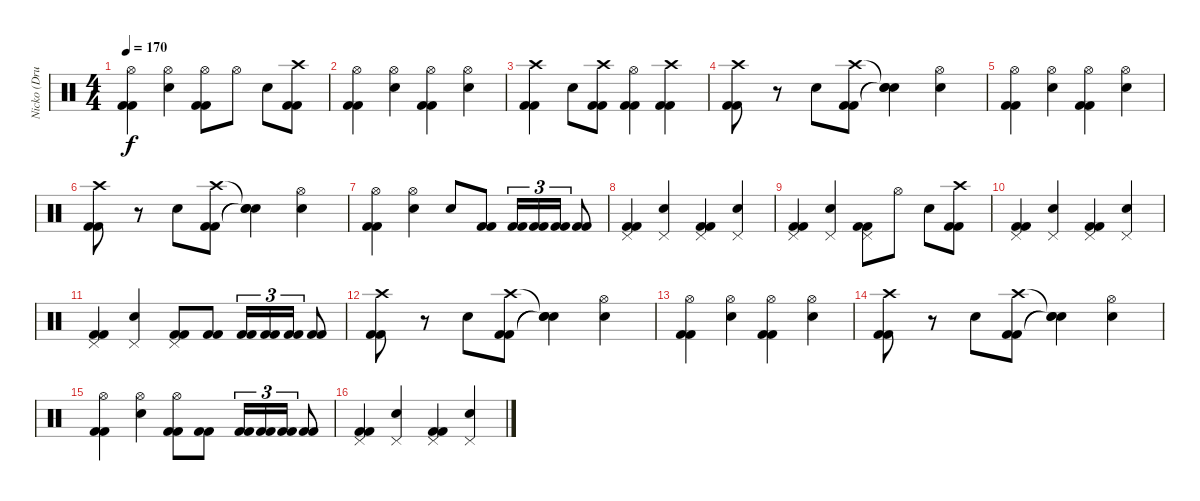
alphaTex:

\track ("Nicko (Drums)" "Nicko (Dru") {instrument percussion}
\staff {score}
\articulation defaults
\ts (4 4)
\tempo 170
\clef neutral
\ks c
("Hi-Hat (open)" "Kick (hit) 2" "Kick (hit) 2").4{dy f} ("Hi-Hat (open)" "Snare (hit) 2").4 ("Hi-Hat (open)" "Kick (hit) 2" "Kick (hit) 2").8 "Hi-Hat (open)".8 "Snare (hit) 2".8 ("Crash high (hit)" "Kick (hit) 2" "Kick (hit) 2").8 |
("Hi-Hat (open)" "Kick (hit) 2" "Kick (hit) 2").4 ("Hi-Hat (open)" "Snare (hit) 2").4 ("Hi-Hat (open)" "Kick (hit) 2" "Kick (hit) 2").4 ("Hi-Hat (open)" "Snare (hit) 2").4 |
("Crash high (hit)" "Kick (hit) 2" "Kick (hit) 2").4 "Snare (hit) 2".8 ("Crash high (hit)" "Kick (hit) 2" "Kick (hit) 2").8 ("Hi-Hat (open)" "Kick (hit) 2" "Kick (hit) 2").4 ("Crash high (hit)" "Kick (hit) 2" "Kick (hit) 2").4 |
("Crash high (hit)" "Kick (hit) 2" "Kick (hit) 2").8 r.8 "Snare (hit) 2".8 ("Crash high (hit)" "Kick (hit) 2" "Kick (hit) 2").8 ("Snare (hit)"{t} "Snare (hit)"{t} "Snare (hit)"{t}).4 ("Hi-Hat (open)" "Snare (hit) 2").4 |
("Hi-Hat (open)" "Kick (hit) 2" "Kick (hit) 2").4 ("Hi-Hat (open)" "Snare (hit) 2").4 ("Hi-Hat (open)" "Kick (hit) 2" "Kick (hit) 2").4 ("Hi-Hat (open)" "Snare (hit) 2").4 |
("Crash high (hit)" "Kick (hit) 2" "Kick (hit) 2").8 r.8 "Snare (hit) 2".8 ("Crash high (hit)" "Kick (hit) 2" "Kick (hit) 2").8 ("Snare (hit)"{t} "Snare (hit)"{t} "Snare (hit)"{t}).4 ("Hi-Hat (open)" "Snare (hit) 2").4 |
("Hi-Hat (open)" "Kick (hit) 2" "Kick (hit) 2").4 ("Hi-Hat (open)" "Snare (hit) 2").4 "Snare (hit) 2".8 ("Kick (hit) 2" "Kick (hit) 2").8 ("Kick (hit) 2" "Kick (hit) 2").16{tu (3 2)} ("Kick (hit) 2" "Kick (hit) 2").16{tu (3 2)} ("Kick (hit) 2" "Kick (hit) 2").16{tu (3 2)} ("Kick (hit) 2" "Kick (hit) 2").8 |
("Pedal Hi-Hat (hit)" "Kick (hit) 2" "Kick (hit) 2").4 ("Pedal Hi-Hat (hit)" "Snare (hit) 2").4 ("Pedal Hi-Hat (hit)" "Kick (hit) 2" "Kick (hit) 2").4 ("Pedal Hi-Hat (hit)" "Snare (hit) 2").4 |
("Pedal Hi-Hat (hit)" "Kick (hit) 2" "Kick (hit) 2").4 ("Pedal Hi-Hat (hit)" "Snare (hit) 2").4 ("Pedal Hi-Hat (hit)" "Kick (hit) 2" "Kick (hit) 2").8 "Hi-Hat (open)".8 "Snare (hit) 2".8 ("Crash high (hit)" "Kick (hit) 2" "Kick (hit) 2").8 |
("Pedal Hi-Hat (hit)" "Kick (hit) 2" "Kick (hit) 2").4 ("Pedal Hi-Hat (hit)" "Snare (hit) 2").4 ("Pedal Hi-Hat (hit)" "Kick (hit) 2" "Kick (hit) 2").4 ("Pedal Hi-Hat (hit)" "Snare (hit) 2").4 |
("Pedal Hi-Hat (hit)" "Kick (hit) 2" "Kick (hit) 2").4 ("Pedal Hi-Hat (hit)" "Snare (hit) 2").4 ("Pedal Hi-Hat (hit)" "Kick (hit) 2" "Kick (hit) 2").8 ("Kick (hit) 2" "Kick (hit) 2").8 ("Kick (hit) 2" "Kick (hit) 2").16{tu (3 2)} ("Kick (hit) 2" "Kick (hit) 2").16{tu (3 2)} ("Kick (hit) 2" "Kick (hit) 2").16{tu (3 2)} ("Kick (hit) 2" "Kick (hit) 2").8 |
("Crash high (hit)" "Kick (hit) 2" "Kick (hit) 2").8 r.8 "Snare (hit) 2".8 ("Crash high (hit)" "Kick (hit) 2" "Kick (hit) 2").8 ("Snare (hit)"{t} "Snare (hit)"{t} "Snare (hit)"{t}).4 ("Hi-Hat (open)" "Snare (hit) 2").4 |
("Hi-Hat (open)" "Kick (hit) 2" "Kick (hit) 2").4 ("Hi-Hat (open)" "Snare (hit) 2").4 ("Hi-Hat (open)" "Kick (hit) 2" "Kick (hit) 2").4 ("Hi-Hat (open)" "Snare (hit) 2").4 |
("Crash high (hit)" "Kick (hit) 2" "Kick (hit) 2").8 r.8 "Snare (hit) 2".8 ("Crash high (hit)" "Kick (hit) 2" "Kick (hit) 2").8 ("Snare (hit)"{t} "Snare (hit)"{t} "Snare (hit)"{t}).4 ("Hi-Hat (open)" "Snare (hit) 2").4 |
("Hi-Hat (open)" "Kick (hit) 2" "Kick (hit) 2").4 ("Hi-Hat (open)" "Snare (hit) 2").4 ("Hi-Hat (open)" "Kick (hit) 2" "Kick (hit) 2").8 ("Kick (hit) 2" "Kick (hit) 2").8 ("Kick (hit) 2" "Kick (hit) 2").16{tu (3 2)} ("Kick (hit) 2" "Kick (hit) 2").16{tu (3 2)} ("Kick (hit) 2" "Kick (hit) 2").16{tu (3 2)} ("Kick (hit) 2" "Kick (hit) 2").8 |
("Pedal Hi-Hat (hit)" "Kick (hit) 2" "Kick (hit) 2").4 ("Pedal Hi-Hat (hit)" "Snare (hit) 2").4 ("Pedal Hi-Hat (hit)" "Kick (hit) 2" "Kick (hit) 2").4 ("Pedal Hi-Hat (hit)" "Snare (hit) 2").4
